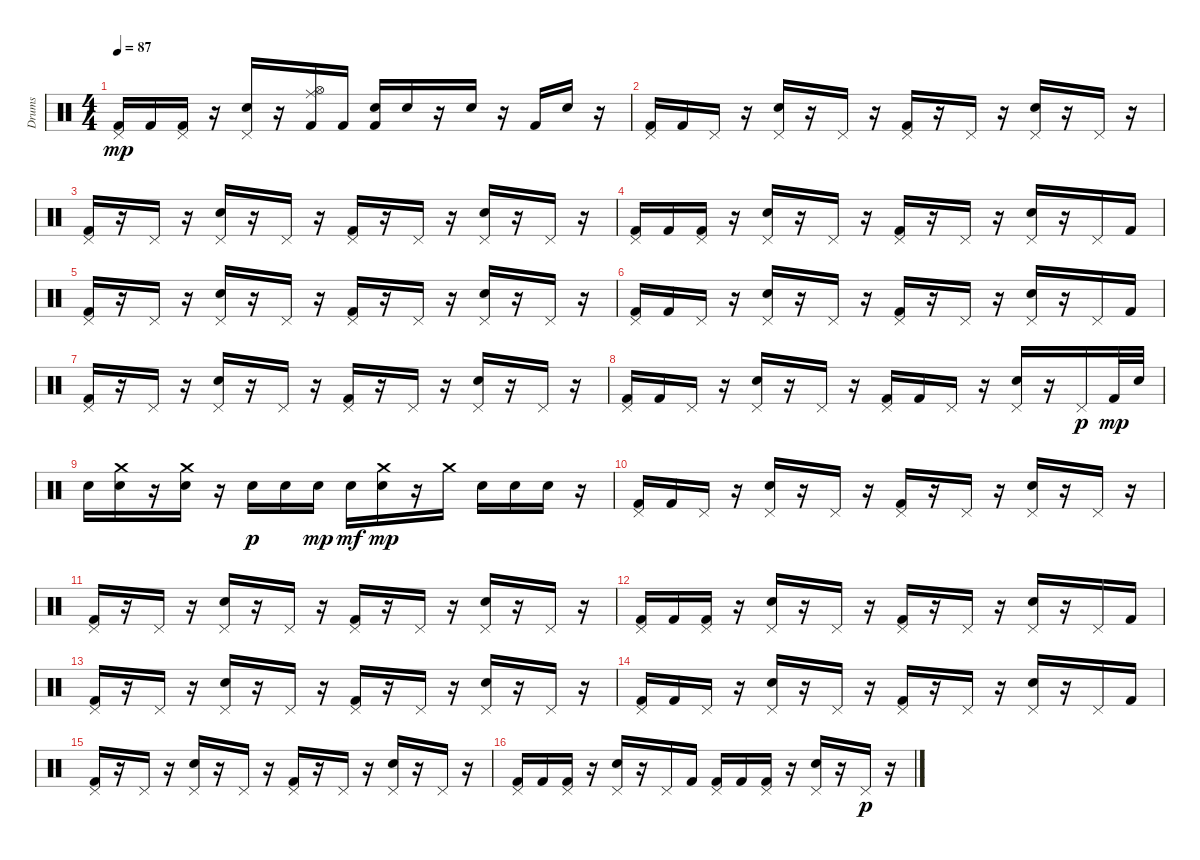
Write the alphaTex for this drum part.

\track ("Drums" "Drums") {instrument percussion}
\staff {score}
\articulation defaults
\ts (4 4)
\tempo 87
\clef neutral
\ks c
("Pedal Hi-Hat (hit)" "Kick (hit) 2").16{dy mp} "Kick (hit) 2".16 ("Pedal Hi-Hat (hit)" "Kick (hit) 2").16 r.16 ("Pedal Hi-Hat (hit)" "Electric Snare (hit)").16 r.16 ("Hi-Hat (open)" "Ride (middle)" "Kick (hit) 2").16 "Kick (hit) 2".16 ("Electric Snare (hit)" "Kick (hit) 2").16 "Electric Snare (hit)".16 r.16 "Electric Snare (hit)".16 r.16 "Kick (hit) 2".16 "Electric Snare (hit)".16 r.16 |
("Pedal Hi-Hat (hit)" "Kick (hit) 2").16 "Kick (hit) 2".16 "Pedal Hi-Hat (hit)".16 r.16 ("Pedal Hi-Hat (hit)" "Electric Snare (hit)").16 r.16 "Pedal Hi-Hat (hit)".16 r.16 ("Pedal Hi-Hat (hit)" "Kick (hit) 2").16 r.16 "Pedal Hi-Hat (hit)".16 r.16 ("Pedal Hi-Hat (hit)" "Electric Snare (hit)").16 r.16 "Pedal Hi-Hat (hit)".16 r.16 |
("Pedal Hi-Hat (hit)" "Kick (hit) 2").16 r.16 "Pedal Hi-Hat (hit)".16 r.16 ("Pedal Hi-Hat (hit)" "Electric Snare (hit)").16 r.16 "Pedal Hi-Hat (hit)".16 r.16 ("Pedal Hi-Hat (hit)" "Kick (hit) 2").16 r.16 "Pedal Hi-Hat (hit)".16 r.16 ("Pedal Hi-Hat (hit)" "Electric Snare (hit)").16 r.16 "Pedal Hi-Hat (hit)".16 r.16 |
("Pedal Hi-Hat (hit)" "Kick (hit) 2").16 "Kick (hit) 2".16 ("Pedal Hi-Hat (hit)" "Kick (hit) 2").16 r.16 ("Pedal Hi-Hat (hit)" "Electric Snare (hit)").16 r.16 "Pedal Hi-Hat (hit)".16 r.16 ("Pedal Hi-Hat (hit)" "Kick (hit) 2").16 r.16 "Pedal Hi-Hat (hit)".16 r.16 ("Pedal Hi-Hat (hit)" "Electric Snare (hit)").16 r.16 "Pedal Hi-Hat (hit)".16 "Kick (hit) 2".16 |
("Pedal Hi-Hat (hit)" "Kick (hit) 2").16 r.16 "Pedal Hi-Hat (hit)".16 r.16 ("Pedal Hi-Hat (hit)" "Electric Snare (hit)").16 r.16 "Pedal Hi-Hat (hit)".16 r.16 ("Pedal Hi-Hat (hit)" "Kick (hit) 2").16 r.16 "Pedal Hi-Hat (hit)".16 r.16 ("Pedal Hi-Hat (hit)" "Electric Snare (hit)").16 r.16 "Pedal Hi-Hat (hit)".16 r.16 |
("Pedal Hi-Hat (hit)" "Kick (hit) 2").16 "Kick (hit) 2".16 "Pedal Hi-Hat (hit)".16 r.16 ("Pedal Hi-Hat (hit)" "Electric Snare (hit)").16 r.16 "Pedal Hi-Hat (hit)".16 r.16 ("Pedal Hi-Hat (hit)" "Kick (hit) 2").16 r.16 "Pedal Hi-Hat (hit)".16 r.16 ("Pedal Hi-Hat (hit)" "Electric Snare (hit)").16 r.16 "Pedal Hi-Hat (hit)".16 "Kick (hit) 2".16 |
("Pedal Hi-Hat (hit)" "Kick (hit) 2").16 r.16 "Pedal Hi-Hat (hit)".16 r.16 ("Pedal Hi-Hat (hit)" "Electric Snare (hit)").16 r.16 "Pedal Hi-Hat (hit)".16 r.16 ("Pedal Hi-Hat (hit)" "Kick (hit) 2").16 r.16 "Pedal Hi-Hat (hit)".16 r.16 ("Pedal Hi-Hat (hit)" "Electric Snare (hit)").16 r.16 "Pedal Hi-Hat (hit)".16 r.16 |
("Pedal Hi-Hat (hit)" "Kick (hit) 2").16 "Kick (hit) 2".16 "Pedal Hi-Hat (hit)".16 r.16 ("Pedal Hi-Hat (hit)" "Electric Snare (hit)").16 r.16 "Pedal Hi-Hat (hit)".16 r.16 ("Pedal Hi-Hat (hit)" "Kick (hit) 2").16 "Kick (hit) 2".16 "Pedal Hi-Hat (hit)".16 r.16 ("Pedal Hi-Hat (hit)" "Electric Snare (hit)").16 r.16 "Pedal Hi-Hat (hit)".16{dy p} "Kick (hit) 2".32{dy mp} "Electric Snare (hit)".32 |
"Electric Snare (hit)".16 ("Crash medium (hit)" "Electric Snare (hit)").16 r.16 ("Crash medium (hit)" "Electric Snare (hit)").16 r.16 "Electric Snare (hit)".16{dy p} "Electric Snare (hit)".16 "Electric Snare (hit)".16{dy mp} "Electric Snare (hit)".16{dy mf} ("Crash medium (hit)" "Electric Snare (hit)").16{dy mp} r.16 "Crash medium (hit)".16 "Electric Snare (hit)".16 "Electric Snare (hit)".16 "Electric Snare (hit)".16 r.16 |
("Pedal Hi-Hat (hit)" "Kick (hit) 2").16 "Kick (hit) 2".16 "Pedal Hi-Hat (hit)".16 r.16 ("Pedal Hi-Hat (hit)" "Electric Snare (hit)").16 r.16 "Pedal Hi-Hat (hit)".16 r.16 ("Pedal Hi-Hat (hit)" "Kick (hit) 2").16 r.16 "Pedal Hi-Hat (hit)".16 r.16 ("Pedal Hi-Hat (hit)" "Electric Snare (hit)").16 r.16 "Pedal Hi-Hat (hit)".16 r.16 |
("Pedal Hi-Hat (hit)" "Kick (hit) 2").16 r.16 "Pedal Hi-Hat (hit)".16 r.16 ("Pedal Hi-Hat (hit)" "Electric Snare (hit)").16 r.16 "Pedal Hi-Hat (hit)".16 r.16 ("Pedal Hi-Hat (hit)" "Kick (hit) 2").16 r.16 "Pedal Hi-Hat (hit)".16 r.16 ("Pedal Hi-Hat (hit)" "Electric Snare (hit)").16 r.16 "Pedal Hi-Hat (hit)".16 r.16 |
("Pedal Hi-Hat (hit)" "Kick (hit) 2").16 "Kick (hit) 2".16 ("Pedal Hi-Hat (hit)" "Kick (hit) 2").16 r.16 ("Pedal Hi-Hat (hit)" "Electric Snare (hit)").16 r.16 "Pedal Hi-Hat (hit)".16 r.16 ("Pedal Hi-Hat (hit)" "Kick (hit) 2").16 r.16 "Pedal Hi-Hat (hit)".16 r.16 ("Pedal Hi-Hat (hit)" "Electric Snare (hit)").16 r.16 "Pedal Hi-Hat (hit)".16 "Kick (hit) 2".16 |
("Pedal Hi-Hat (hit)" "Kick (hit) 2").16 r.16 "Pedal Hi-Hat (hit)".16 r.16 ("Pedal Hi-Hat (hit)" "Electric Snare (hit)").16 r.16 "Pedal Hi-Hat (hit)".16 r.16 ("Pedal Hi-Hat (hit)" "Kick (hit) 2").16 r.16 "Pedal Hi-Hat (hit)".16 r.16 ("Pedal Hi-Hat (hit)" "Electric Snare (hit)").16 r.16 "Pedal Hi-Hat (hit)".16 r.16 |
("Pedal Hi-Hat (hit)" "Kick (hit) 2").16 "Kick (hit) 2".16 "Pedal Hi-Hat (hit)".16 r.16 ("Pedal Hi-Hat (hit)" "Electric Snare (hit)").16 r.16 "Pedal Hi-Hat (hit)".16 r.16 ("Pedal Hi-Hat (hit)" "Kick (hit) 2").16 r.16 "Pedal Hi-Hat (hit)".16 r.16 ("Pedal Hi-Hat (hit)" "Electric Snare (hit)").16 r.16 "Pedal Hi-Hat (hit)".16 "Kick (hit) 2".16 |
("Pedal Hi-Hat (hit)" "Kick (hit) 2").16 r.16 "Pedal Hi-Hat (hit)".16 r.16 ("Pedal Hi-Hat (hit)" "Electric Snare (hit)").16 r.16 "Pedal Hi-Hat (hit)".16 r.16 ("Pedal Hi-Hat (hit)" "Kick (hit) 2").16 r.16 "Pedal Hi-Hat (hit)".16 r.16 ("Pedal Hi-Hat (hit)" "Electric Snare (hit)").16 r.16 "Pedal Hi-Hat (hit)".16 r.16 |
("Pedal Hi-Hat (hit)" "Kick (hit) 2").16 "Kick (hit) 2".16 ("Pedal Hi-Hat (hit)" "Kick (hit) 2").16 r.16 ("Pedal Hi-Hat (hit)" "Electric Snare (hit)").16 r.16 "Pedal Hi-Hat (hit)".16 "Kick (hit) 2".16 ("Pedal Hi-Hat (hit)" "Kick (hit) 2").16 "Kick (hit) 2".16 ("Pedal Hi-Hat (hit)" "Kick (hit) 2").16 r.16 ("Pedal Hi-Hat (hit)" "Electric Snare (hit)").16 r.16 "Pedal Hi-Hat (hit)".16{dy p} r.16
